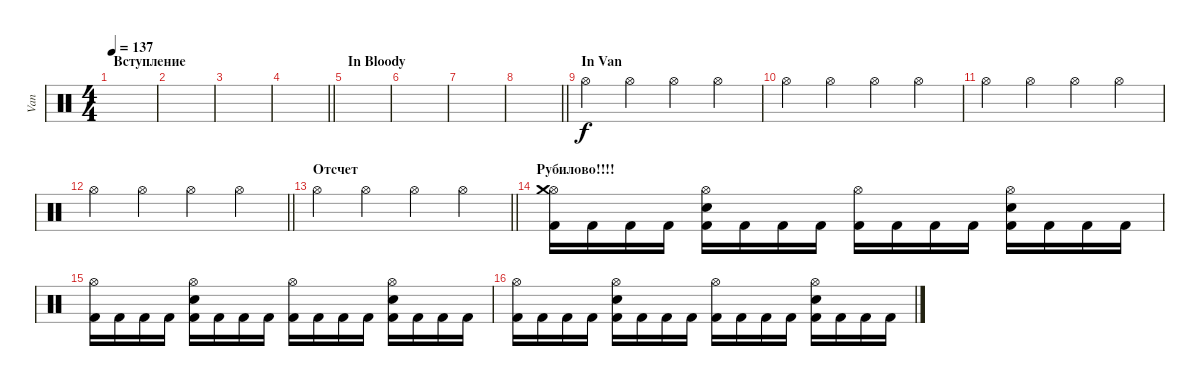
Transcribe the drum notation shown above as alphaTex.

\track ("Van" "Van") {instrument percussion}
\staff {score}
\articulation defaults
\ts (4 4)
\section ("" "Вступление")
\tempo 137
\clef neutral
\ks c
|
|
|
\barLineRight lightlight
|
\section ("" "In Bloody")
|
|
|
\barLineRight lightlight
|
\section ("" "In Van")
"Hi-Hat (open)".4 "Hi-Hat (open)".4 "Hi-Hat (open)".4 "Hi-Hat (open)".4 |
"Hi-Hat (open)".4 "Hi-Hat (open)".4 "Hi-Hat (open)".4 "Hi-Hat (open)".4 |
"Hi-Hat (open)".4 "Hi-Hat (open)".4 "Hi-Hat (open)".4 "Hi-Hat (open)".4 |
\barLineRight lightlight "Hi-Hat (open)".4 "Hi-Hat (open)".4 "Hi-Hat (open)".4 "Hi-Hat (open)".4
|
\section ("" "Отсчет")
\barLineRight lightlight "Hi-Hat (open)".4 "Hi-Hat (open)".4 "Hi-Hat (open)".4 "Hi-Hat (open)".4
|
\section ("" "Рубилово!!!!")
("Hi-Hat (open)" "Crash medium (hit)" "Kick (hit) 2").16 "Kick (hit) 2".16 "Kick (hit) 2".16 "Kick (hit) 2".16 ("Hi-Hat (open)" "Snare (hit) 2" "Kick (hit) 2").16 "Kick (hit) 2".16 "Kick (hit) 2".16 "Kick (hit) 2".16 ("Hi-Hat (open)" "Kick (hit) 2").16 "Kick (hit) 2".16 "Kick (hit) 2".16 "Kick (hit) 2".16 ("Hi-Hat (open)" "Electric Snare (hit)" "Kick (hit) 2").16 "Kick (hit) 2".16 "Kick (hit) 2".16 "Kick (hit) 2".16 |
("Hi-Hat (open)" "Kick (hit) 2").16 "Kick (hit) 2".16 "Kick (hit) 2".16 "Kick (hit) 2".16 ("Hi-Hat (open)" "Snare (hit) 2" "Kick (hit) 2").16 "Kick (hit) 2".16 "Kick (hit) 2".16 "Kick (hit) 2".16 ("Hi-Hat (open)" "Kick (hit) 2").16 "Kick (hit) 2".16 "Kick (hit) 2".16 "Kick (hit) 2".16 ("Hi-Hat (open)" "Electric Snare (hit)" "Kick (hit) 2").16 "Kick (hit) 2".16 "Kick (hit) 2".16 "Kick (hit) 2".16 |
("Hi-Hat (open)" "Kick (hit) 2").16 "Kick (hit) 2".16 "Kick (hit) 2".16 "Kick (hit) 2".16 ("Hi-Hat (open)" "Snare (hit) 2" "Kick (hit) 2").16 "Kick (hit) 2".16 "Kick (hit) 2".16 "Kick (hit) 2".16 ("Hi-Hat (open)" "Kick (hit) 2").16 "Kick (hit) 2".16 "Kick (hit) 2".16 "Kick (hit) 2".16 ("Hi-Hat (open)" "Electric Snare (hit)" "Kick (hit) 2").16 "Kick (hit) 2".16 "Kick (hit) 2".16 "Kick (hit) 2".16
